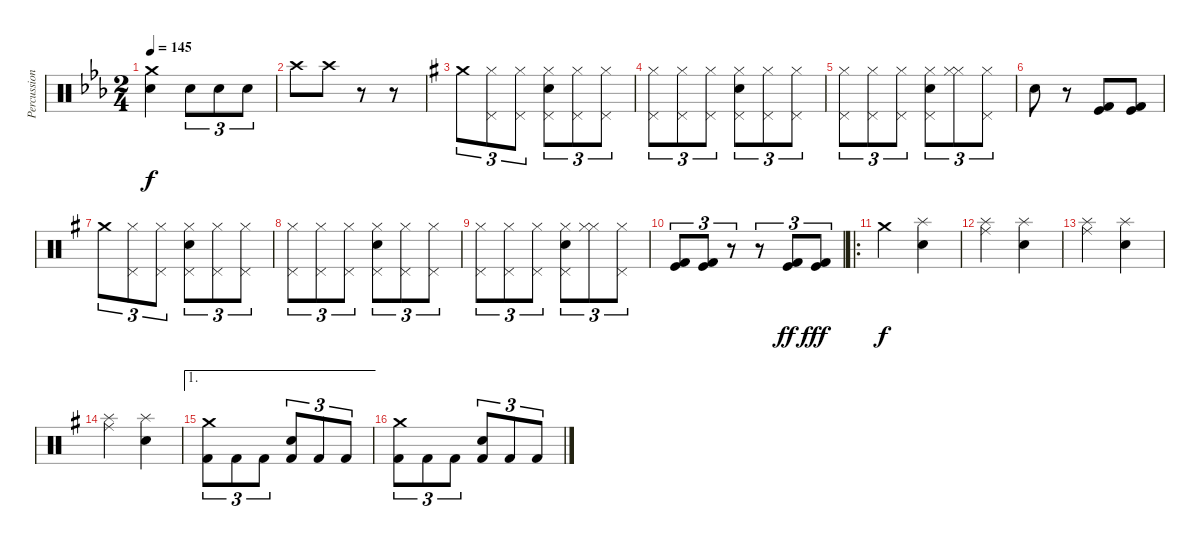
\track ("Percussion" "Percussion") {instrument percussion}
\staff {score}
\articulation defaults
\ts (2 4)
\tempo 145
\clef neutral
\ks cminor
("Crash medium (hit)" "Electric Snare (hit)").4{dy f} "Electric Snare (hit)".8{tu (3 2)} "Electric Snare (hit)".8{tu (3 2)} "Electric Snare (hit)".8{tu (3 2)} |
"Crash high (hit)".8 "Crash high (hit)".8 r.8 r.8 |
\ks eminor "Crash medium (hit)".8{tu (3 2)}
("Hi-Hat (closed)" "Pedal Hi-Hat (hit)").8{tu (3 2)} ("Hi-Hat (closed)" "Pedal Hi-Hat (hit)").8{tu (3 2)} ("Hi-Hat (closed)" "Pedal Hi-Hat (hit)" "Electric Snare (hit)").8{tu (3 2)} ("Hi-Hat (closed)" "Pedal Hi-Hat (hit)").8{tu (3 2)} ("Hi-Hat (closed)" "Pedal Hi-Hat (hit)").8{tu (3 2)} |
("Hi-Hat (closed)" "Pedal Hi-Hat (hit)").8{tu (3 2)} ("Hi-Hat (closed)" "Pedal Hi-Hat (hit)").8{tu (3 2)} ("Hi-Hat (closed)" "Pedal Hi-Hat (hit)").8{tu (3 2)} ("Hi-Hat (closed)" "Pedal Hi-Hat (hit)" "Electric Snare (hit)").8{tu (3 2)} ("Hi-Hat (closed)" "Pedal Hi-Hat (hit)").8{tu (3 2)} ("Hi-Hat (closed)" "Pedal Hi-Hat (hit)").8{tu (3 2)} |
("Hi-Hat (closed)" "Pedal Hi-Hat (hit)").8{tu (3 2)} ("Hi-Hat (closed)" "Pedal Hi-Hat (hit)").8{tu (3 2)} ("Hi-Hat (closed)" "Pedal Hi-Hat (hit)").8{tu (3 2)} ("Hi-Hat (closed)" "Pedal Hi-Hat (hit)" "Electric Snare (hit)").8{tu (3 2)} ("Hi-Hat (closed)" "Hi-Hat (closed)").8{tu (3 2)} ("Hi-Hat (closed)" "Pedal Hi-Hat (hit)").8{tu (3 2)} |
"Electric Snare (hit)".8 r.8 ("Kick (hit)" "Kick (hit) 2").8 ("Kick (hit)" "Kick (hit) 2").8 |
"Crash medium (hit)".8{tu (3 2)} ("Hi-Hat (closed)" "Pedal Hi-Hat (hit)").8{tu (3 2)} ("Hi-Hat (closed)" "Pedal Hi-Hat (hit)").8{tu (3 2)} ("Hi-Hat (closed)" "Pedal Hi-Hat (hit)" "Electric Snare (hit)").8{tu (3 2)} ("Hi-Hat (closed)" "Pedal Hi-Hat (hit)").8{tu (3 2)} ("Hi-Hat (closed)" "Pedal Hi-Hat (hit)").8{tu (3 2)} |
("Hi-Hat (closed)" "Pedal Hi-Hat (hit)").8{tu (3 2)} ("Hi-Hat (closed)" "Pedal Hi-Hat (hit)").8{tu (3 2)} ("Hi-Hat (closed)" "Pedal Hi-Hat (hit)").8{tu (3 2)} ("Hi-Hat (closed)" "Pedal Hi-Hat (hit)" "Electric Snare (hit)").8{tu (3 2)} ("Hi-Hat (closed)" "Pedal Hi-Hat (hit)").8{tu (3 2)} ("Hi-Hat (closed)" "Pedal Hi-Hat (hit)").8{tu (3 2)} |
("Hi-Hat (closed)" "Pedal Hi-Hat (hit)").8{tu (3 2)} ("Hi-Hat (closed)" "Pedal Hi-Hat (hit)").8{tu (3 2)} ("Hi-Hat (closed)" "Pedal Hi-Hat (hit)").8{tu (3 2)} ("Hi-Hat (closed)" "Pedal Hi-Hat (hit)" "Electric Snare (hit)").8{tu (3 2)} ("Hi-Hat (closed)" "Hi-Hat (closed)").8{tu (3 2)} ("Hi-Hat (closed)" "Pedal Hi-Hat (hit)").8{tu (3 2)} |
("Kick (hit)" "Kick (hit) 2").8{tu (3 2)} ("Kick (hit)" "Kick (hit) 2").8{tu (3 2)} r.8{tu (3 2)} r.8{tu (3 2)} ("Kick (hit)" "Kick (hit) 2").8{tu (3 2) dy ff} ("Kick (hit)" "Kick (hit) 2").8{tu (3 2) dy fff} |
\ro "Crash medium (hit)".4{dy f}
("Electric Snare (hit)" "Splash (hit)").4 |
("Ride (middle)" "Splash (hit)").4 ("Electric Snare (hit)" "Splash (hit)").4 |
("Ride (middle)" "Splash (hit)").4 ("Electric Snare (hit)" "Splash (hit)").4 |
("Ride (middle)" "Splash (hit)").4 ("Electric Snare (hit)" "Splash (hit)").4 |
\ae 1
("Crash medium (hit)" "Kick (hit) 2").8{tu (3 2)} "Kick (hit) 2".8{tu (3 2)} "Kick (hit) 2".8{tu (3 2)} ("Electric Snare (hit)" "Kick (hit) 2").8{tu (3 2)} "Kick (hit) 2".8{tu (3 2)} "Kick (hit) 2".8{tu (3 2)} |
("Crash medium (hit)" "Kick (hit) 2").8{tu (3 2)} "Kick (hit) 2".8{tu (3 2)} "Kick (hit) 2".8{tu (3 2)} ("Electric Snare (hit)" "Kick (hit) 2").8{tu (3 2)} "Kick (hit) 2".8{tu (3 2)} "Kick (hit) 2".8{tu (3 2)}
